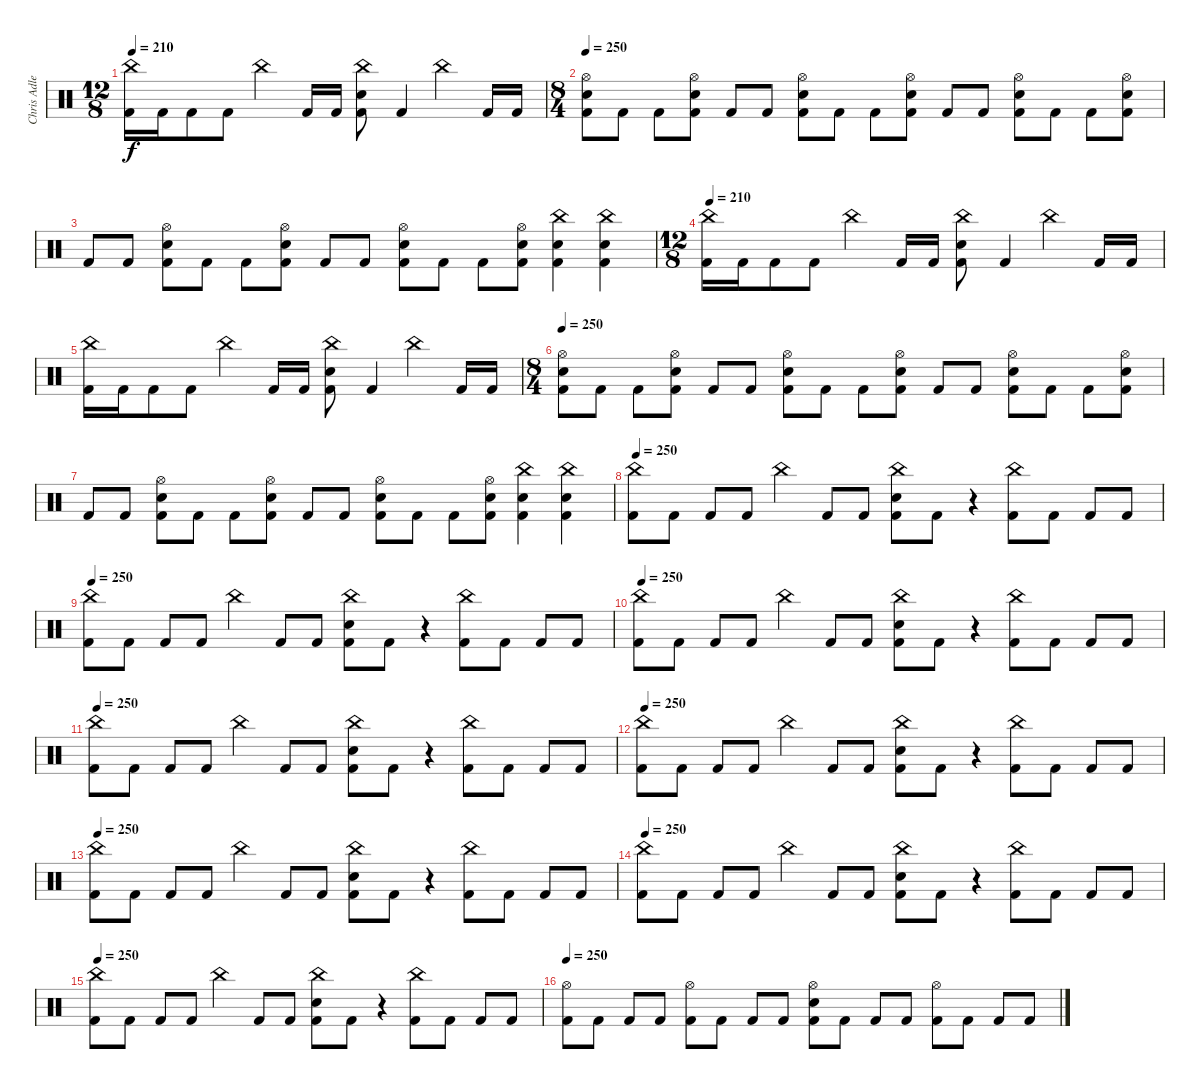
\track ("Chris Adler" "Chris Adle") {instrument percussion}
\staff {score}
\articulation defaults
\ts (12 8)
\tempo 210
\clef neutral
\ks c
("China (hit)" "Kick (hit) 2").16{dy f} "Kick (hit) 2".16 "Kick (hit) 2".8 "Kick (hit) 2".8 "China (hit)".4 "Kick (hit) 2".16 "Kick (hit) 2".16 ("China (hit)" "Snare (hit) 2" "Kick (hit) 2").8 "Kick (hit) 2".4 "China (hit)".4 "Kick (hit) 2".16 "Kick (hit) 2".16 |
\ts (8 4)
\tempo 250
("Hi-Hat (open)" "Snare (hit) 2" "Kick (hit) 2").8 "Kick (hit) 2".8 "Kick (hit) 2".8 ("Hi-Hat (open)" "Snare (hit) 2" "Kick (hit) 2").8 "Kick (hit) 2".8 "Kick (hit) 2".8 ("Hi-Hat (open)" "Snare (hit) 2" "Kick (hit) 2").8 "Kick (hit) 2".8 "Kick (hit) 2".8 ("Hi-Hat (open)" "Snare (hit) 2" "Kick (hit) 2").8 "Kick (hit) 2".8 "Kick (hit) 2".8 ("Hi-Hat (open)" "Snare (hit) 2" "Kick (hit) 2").8 "Kick (hit) 2".8 "Kick (hit) 2".8 ("Hi-Hat (open)" "Snare (hit) 2" "Kick (hit) 2").8 |
"Kick (hit) 2".8 "Kick (hit) 2".8 ("Hi-Hat (open)" "Snare (hit) 2" "Kick (hit) 2").8 "Kick (hit) 2".8 "Kick (hit) 2".8 ("Hi-Hat (open)" "Snare (hit) 2" "Kick (hit) 2").8 "Kick (hit) 2".8 "Kick (hit) 2".8 ("Hi-Hat (open)" "Snare (hit) 2" "Kick (hit) 2").8 "Kick (hit) 2".8 "Kick (hit) 2".8 ("Hi-Hat (open)" "Snare (hit) 2" "Kick (hit) 2").8 ("China (hit)" "Snare (hit) 2" "Kick (hit) 2").4 ("China (hit)" "Snare (hit) 2" "Kick (hit) 2").4 |
\ts (12 8)
\tempo 210
("China (hit)" "Kick (hit) 2").16 "Kick (hit) 2".16 "Kick (hit) 2".8 "Kick (hit) 2".8 "China (hit)".4 "Kick (hit) 2".16 "Kick (hit) 2".16 ("China (hit)" "Snare (hit) 2" "Kick (hit) 2").8 "Kick (hit) 2".4 "China (hit)".4 "Kick (hit) 2".16 "Kick (hit) 2".16 |
("China (hit)" "Kick (hit) 2").16 "Kick (hit) 2".16 "Kick (hit) 2".8 "Kick (hit) 2".8 "China (hit)".4 "Kick (hit) 2".16 "Kick (hit) 2".16 ("China (hit)" "Snare (hit) 2" "Kick (hit) 2").8 "Kick (hit) 2".4 "China (hit)".4 "Kick (hit) 2".16 "Kick (hit) 2".16 |
\ts (8 4)
\tempo 250
("Hi-Hat (open)" "Snare (hit) 2" "Kick (hit) 2").8 "Kick (hit) 2".8 "Kick (hit) 2".8 ("Hi-Hat (open)" "Snare (hit) 2" "Kick (hit) 2").8 "Kick (hit) 2".8 "Kick (hit) 2".8 ("Hi-Hat (open)" "Snare (hit) 2" "Kick (hit) 2").8 "Kick (hit) 2".8 "Kick (hit) 2".8 ("Hi-Hat (open)" "Snare (hit) 2" "Kick (hit) 2").8 "Kick (hit) 2".8 "Kick (hit) 2".8 ("Hi-Hat (open)" "Snare (hit) 2" "Kick (hit) 2").8 "Kick (hit) 2".8 "Kick (hit) 2".8 ("Hi-Hat (open)" "Snare (hit) 2" "Kick (hit) 2").8 |
"Kick (hit) 2".8 "Kick (hit) 2".8 ("Hi-Hat (open)" "Snare (hit) 2" "Kick (hit) 2").8 "Kick (hit) 2".8 "Kick (hit) 2".8 ("Hi-Hat (open)" "Snare (hit) 2" "Kick (hit) 2").8 "Kick (hit) 2".8 "Kick (hit) 2".8 ("Hi-Hat (open)" "Snare (hit) 2" "Kick (hit) 2").8 "Kick (hit) 2".8 "Kick (hit) 2".8 ("Hi-Hat (open)" "Snare (hit) 2" "Kick (hit) 2").8 ("China (hit)" "Snare (hit) 2" "Kick (hit) 2").4 ("China (hit)" "Snare (hit) 2" "Kick (hit) 2").4 |
\tempo 250
("China (hit)" "Kick (hit) 2").8 "Kick (hit) 2".8 "Kick (hit) 2".8 "Kick (hit) 2".8 "China (hit)".4 "Kick (hit) 2".8 "Kick (hit) 2".8 ("China (hit)" "Snare (hit) 2" "Kick (hit) 2").8 "Kick (hit) 2".8 r.4 ("China (hit)" "Kick (hit) 2").8 "Kick (hit) 2".8 "Kick (hit) 2".8 "Kick (hit) 2".8 |
\tempo 250
("China (hit)" "Kick (hit) 2").8 "Kick (hit) 2".8 "Kick (hit) 2".8 "Kick (hit) 2".8 "China (hit)".4 "Kick (hit) 2".8 "Kick (hit) 2".8 ("China (hit)" "Snare (hit) 2" "Kick (hit) 2").8 "Kick (hit) 2".8 r.4 ("China (hit)" "Kick (hit) 2").8 "Kick (hit) 2".8 "Kick (hit) 2".8 "Kick (hit) 2".8 |
\tempo 250
("China (hit)" "Kick (hit) 2").8 "Kick (hit) 2".8 "Kick (hit) 2".8 "Kick (hit) 2".8 "China (hit)".4 "Kick (hit) 2".8 "Kick (hit) 2".8 ("China (hit)" "Snare (hit) 2" "Kick (hit) 2").8 "Kick (hit) 2".8 r.4 ("China (hit)" "Kick (hit) 2").8 "Kick (hit) 2".8 "Kick (hit) 2".8 "Kick (hit) 2".8 |
\tempo 250
("China (hit)" "Kick (hit) 2").8 "Kick (hit) 2".8 "Kick (hit) 2".8 "Kick (hit) 2".8 "China (hit)".4 "Kick (hit) 2".8 "Kick (hit) 2".8 ("China (hit)" "Snare (hit) 2" "Kick (hit) 2").8 "Kick (hit) 2".8 r.4 ("China (hit)" "Kick (hit) 2").8 "Kick (hit) 2".8 "Kick (hit) 2".8 "Kick (hit) 2".8 |
\tempo 250
("China (hit)" "Kick (hit) 2").8 "Kick (hit) 2".8 "Kick (hit) 2".8 "Kick (hit) 2".8 "China (hit)".4 "Kick (hit) 2".8 "Kick (hit) 2".8 ("China (hit)" "Snare (hit) 2" "Kick (hit) 2").8 "Kick (hit) 2".8 r.4 ("China (hit)" "Kick (hit) 2").8 "Kick (hit) 2".8 "Kick (hit) 2".8 "Kick (hit) 2".8 |
\tempo 250
("China (hit)" "Kick (hit) 2").8 "Kick (hit) 2".8 "Kick (hit) 2".8 "Kick (hit) 2".8 "China (hit)".4 "Kick (hit) 2".8 "Kick (hit) 2".8 ("China (hit)" "Snare (hit) 2" "Kick (hit) 2").8 "Kick (hit) 2".8 r.4 ("China (hit)" "Kick (hit) 2").8 "Kick (hit) 2".8 "Kick (hit) 2".8 "Kick (hit) 2".8 |
\tempo 250
("China (hit)" "Kick (hit) 2").8 "Kick (hit) 2".8 "Kick (hit) 2".8 "Kick (hit) 2".8 "China (hit)".4 "Kick (hit) 2".8 "Kick (hit) 2".8 ("China (hit)" "Snare (hit) 2" "Kick (hit) 2").8 "Kick (hit) 2".8 r.4 ("China (hit)" "Kick (hit) 2").8 "Kick (hit) 2".8 "Kick (hit) 2".8 "Kick (hit) 2".8 |
\tempo 250
("China (hit)" "Kick (hit) 2").8 "Kick (hit) 2".8 "Kick (hit) 2".8 "Kick (hit) 2".8 "China (hit)".4 "Kick (hit) 2".8 "Kick (hit) 2".8 ("China (hit)" "Snare (hit) 2" "Kick (hit) 2").8 "Kick (hit) 2".8 r.4 ("China (hit)" "Kick (hit) 2").8 "Kick (hit) 2".8 "Kick (hit) 2".8 "Kick (hit) 2".8 |
\tempo 250
("Hi-Hat (open)" "Kick (hit) 2").8 "Kick (hit) 2".8 "Kick (hit) 2".8 "Kick (hit) 2".8 ("Hi-Hat (open)" "Kick (hit) 2").8 "Kick (hit) 2".8 "Kick (hit) 2".8 "Kick (hit) 2".8 ("Hi-Hat (open)" "Snare (hit) 2" "Kick (hit) 2").8 "Kick (hit) 2".8 "Kick (hit) 2".8 "Kick (hit) 2".8 ("Hi-Hat (open)" "Kick (hit) 2").8 "Kick (hit) 2".8 "Kick (hit) 2".8 "Kick (hit) 2".8
